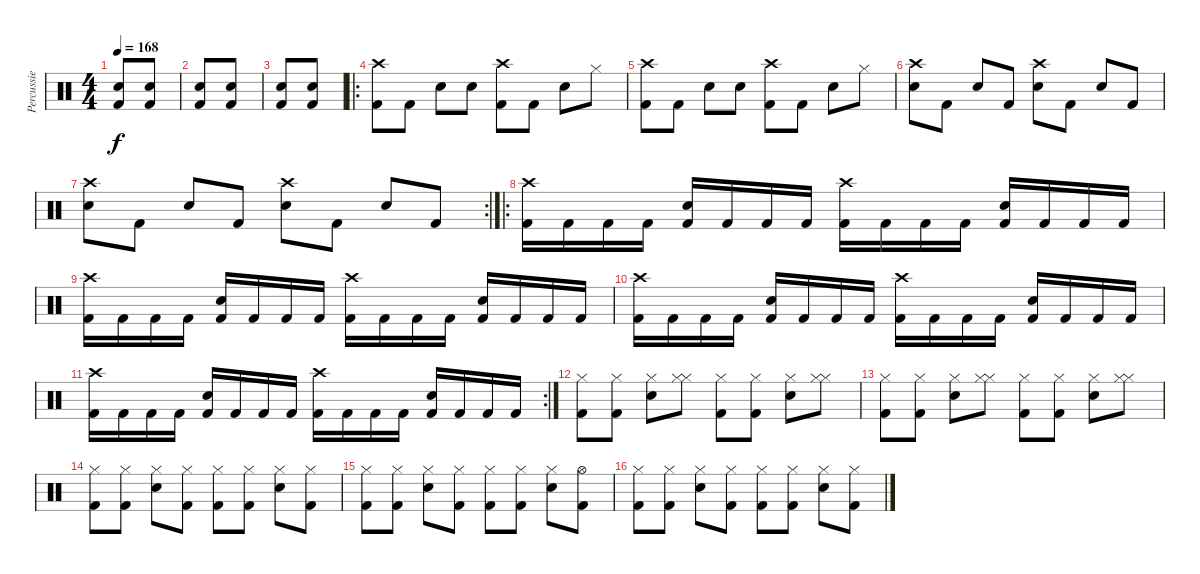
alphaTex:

\track ("Percussie" "Percussie") {instrument percussion}
\staff {score}
\articulation defaults
\ts (4 4)
\tempo 168
\clef neutral
\ks c
("Snare (hit) 2" "Kick (hit) 2").8{dy f} ("Kick (hit) 2" "Snare (hit) 2").8 |
("Kick (hit) 2" "Snare (hit) 2").8 ("Kick (hit) 2" "Snare (hit) 2").8 |
("Snare (hit) 2" "Kick (hit) 2").8 ("Snare (hit) 2" "Kick (hit) 2").8 |
\ro
("Crash high (hit)" "Kick (hit) 2").8 "Kick (hit) 2".8 "Snare (hit) 2".8 "Snare (hit) 2".8 ("Crash high (hit)" "Kick (hit) 2").8 "Kick (hit) 2".8 "Snare (hit) 2".8 "Hi-Hat (closed)".8 |
("Crash high (hit)" "Kick (hit) 2").8 "Kick (hit) 2".8 "Snare (hit) 2".8 "Snare (hit) 2".8 ("Crash high (hit)" "Kick (hit) 2").8 "Kick (hit) 2".8 "Snare (hit) 2".8 "Hi-Hat (closed)".8 |
("Crash high (hit)" "Snare (hit) 2").8 "Kick (hit) 2".8 "Snare (hit) 2".8 "Kick (hit) 2".8 ("Crash high (hit)" "Snare (hit) 2").8 "Kick (hit) 2".8 "Snare (hit) 2".8 "Kick (hit) 2".8 |
\rc 2
("Crash high (hit)" "Snare (hit) 2").8 "Kick (hit) 2".8 "Snare (hit) 2".8 "Kick (hit) 2".8 ("Crash high (hit)" "Snare (hit) 2").8 "Kick (hit) 2".8 "Snare (hit) 2".8 "Kick (hit) 2".8 |
\ro
("Crash high (hit)" "Kick (hit) 2").16 "Kick (hit) 2".16 "Kick (hit) 2".16 "Kick (hit) 2".16 ("Snare (hit) 2" "Kick (hit) 2").16 "Kick (hit) 2".16 "Kick (hit) 2".16 "Kick (hit) 2".16 ("Crash high (hit)" "Kick (hit) 2").16 "Kick (hit) 2".16 "Kick (hit) 2".16 "Kick (hit) 2".16 ("Snare (hit) 2" "Kick (hit) 2").16 "Kick (hit) 2".16 "Kick (hit) 2".16 "Kick (hit) 2".16 |
("Crash high (hit)" "Kick (hit) 2").16 "Kick (hit) 2".16 "Kick (hit) 2".16 "Kick (hit) 2".16 ("Snare (hit) 2" "Kick (hit) 2").16 "Kick (hit) 2".16 "Kick (hit) 2".16 "Kick (hit) 2".16 ("Crash high (hit)" "Kick (hit) 2").16 "Kick (hit) 2".16 "Kick (hit) 2".16 "Kick (hit) 2".16 ("Snare (hit) 2" "Kick (hit) 2").16 "Kick (hit) 2".16 "Kick (hit) 2".16 "Kick (hit) 2".16 |
("Crash high (hit)" "Kick (hit) 2").16 "Kick (hit) 2".16 "Kick (hit) 2".16 "Kick (hit) 2".16 ("Snare (hit) 2" "Kick (hit) 2").16 "Kick (hit) 2".16 "Kick (hit) 2".16 "Kick (hit) 2".16 ("Crash high (hit)" "Kick (hit) 2").16 "Kick (hit) 2".16 "Kick (hit) 2".16 "Kick (hit) 2".16 ("Snare (hit) 2" "Kick (hit) 2").16 "Kick (hit) 2".16 "Kick (hit) 2".16 "Kick (hit) 2".16 |
\rc 2
("Crash high (hit)" "Kick (hit) 2").16 "Kick (hit) 2".16 "Kick (hit) 2".16 "Kick (hit) 2".16 ("Snare (hit) 2" "Kick (hit) 2").16 "Kick (hit) 2".16 "Kick (hit) 2".16 "Kick (hit) 2".16 ("Crash high (hit)" "Kick (hit) 2").16 "Kick (hit) 2".16 "Kick (hit) 2".16 "Kick (hit) 2".16 ("Snare (hit) 2" "Kick (hit) 2").16 "Kick (hit) 2".16 "Kick (hit) 2".16 "Kick (hit) 2".16 |
("Hi-Hat (closed)" "Kick (hit) 2").8 ("Hi-Hat (closed)" "Kick (hit) 2").8 ("Hi-Hat (closed)" "Snare (hit) 2").8 ("Hi-Hat (closed)" "Hi-Hat (closed)").8 ("Hi-Hat (closed)" "Kick (hit) 2").8 ("Hi-Hat (closed)" "Kick (hit) 2").8 ("Hi-Hat (closed)" "Snare (hit) 2").8 ("Hi-Hat (closed)" "Hi-Hat (closed)").8 |
("Hi-Hat (closed)" "Kick (hit) 2").8 ("Hi-Hat (closed)" "Kick (hit) 2").8 ("Hi-Hat (closed)" "Snare (hit) 2").8 ("Hi-Hat (closed)" "Hi-Hat (closed)").8 ("Hi-Hat (closed)" "Kick (hit) 2").8 ("Hi-Hat (closed)" "Kick (hit) 2").8 ("Hi-Hat (closed)" "Snare (hit) 2").8 ("Hi-Hat (closed)" "Hi-Hat (closed)").8 |
("Hi-Hat (closed)" "Kick (hit) 2").8 ("Hi-Hat (closed)" "Kick (hit) 2").8 ("Hi-Hat (closed)" "Snare (hit) 2").8 ("Hi-Hat (closed)" "Kick (hit) 2").8 ("Hi-Hat (closed)" "Kick (hit) 2").8 ("Hi-Hat (closed)" "Kick (hit) 2").8 ("Hi-Hat (closed)" "Snare (hit) 2").8 ("Hi-Hat (closed)" "Kick (hit) 2").8 |
("Hi-Hat (closed)" "Kick (hit) 2").8 ("Hi-Hat (closed)" "Kick (hit) 2").8 ("Hi-Hat (closed)" "Snare (hit) 2").8 ("Hi-Hat (closed)" "Kick (hit) 2").8 ("Hi-Hat (closed)" "Kick (hit) 2").8 ("Hi-Hat (closed)" "Kick (hit) 2").8 ("Hi-Hat (closed)" "Snare (hit) 2").8 ("Hi-Hat (open)" "Kick (hit) 2").8 |
("Hi-Hat (closed)" "Kick (hit) 2").8 ("Hi-Hat (closed)" "Kick (hit) 2").8 ("Hi-Hat (closed)" "Snare (hit) 2").8 ("Hi-Hat (closed)" "Kick (hit) 2").8 ("Hi-Hat (closed)" "Kick (hit) 2").8 ("Hi-Hat (closed)" "Kick (hit) 2").8 ("Hi-Hat (closed)" "Snare (hit) 2").8 ("Hi-Hat (closed)" "Kick (hit) 2").8
